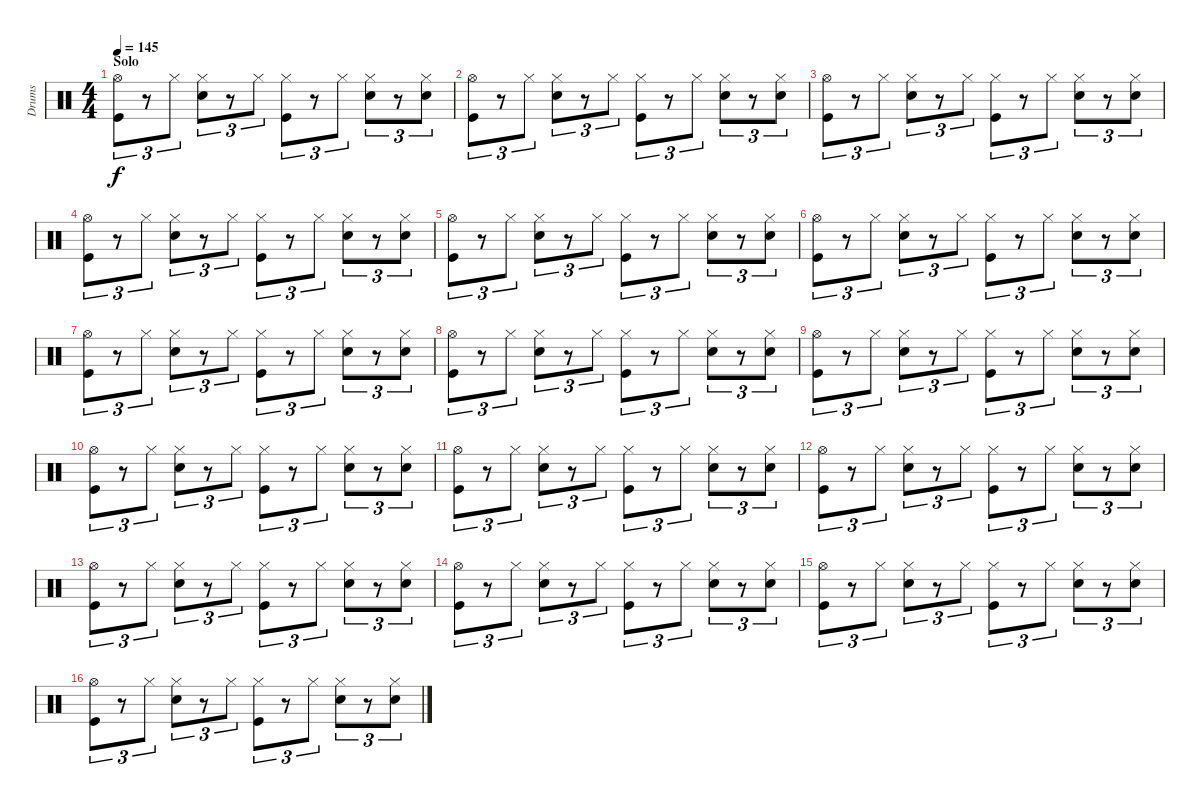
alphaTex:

\track ("Drums" "Drums") {instrument percussion}
\staff {score}
\articulation defaults
\ts (4 4)
\section ("" "Solo")
\tempo 145
\clef neutral
\ks c
("Hi-Hat (open)" "Kick (hit)").8{tu (3 2) dy f} r.8{tu (3 2)} "Hi-Hat (closed)".8{tu (3 2)} ("Hi-Hat (closed)" "Snare (hit) 2").8{tu (3 2)} r.8{tu (3 2)} "Hi-Hat (closed)".8{tu (3 2)} ("Hi-Hat (closed)" "Kick (hit)").8{tu (3 2)} r.8{tu (3 2)} "Hi-Hat (closed)".8{tu (3 2)} ("Hi-Hat (closed)" "Snare (hit) 2").8{tu (3 2)} r.8{tu (3 2)} ("Hi-Hat (closed)" "Snare (hit) 2").8{tu (3 2)} |
("Hi-Hat (open)" "Kick (hit)").8{tu (3 2)} r.8{tu (3 2)} "Hi-Hat (closed)".8{tu (3 2)} ("Hi-Hat (closed)" "Snare (hit) 2").8{tu (3 2)} r.8{tu (3 2)} "Hi-Hat (closed)".8{tu (3 2)} ("Hi-Hat (closed)" "Kick (hit)").8{tu (3 2)} r.8{tu (3 2)} "Hi-Hat (closed)".8{tu (3 2)} ("Hi-Hat (closed)" "Snare (hit) 2").8{tu (3 2)} r.8{tu (3 2)} ("Hi-Hat (closed)" "Snare (hit) 2").8{tu (3 2)} |
("Hi-Hat (open)" "Kick (hit)").8{tu (3 2)} r.8{tu (3 2)} "Hi-Hat (closed)".8{tu (3 2)} ("Hi-Hat (closed)" "Snare (hit) 2").8{tu (3 2)} r.8{tu (3 2)} "Hi-Hat (closed)".8{tu (3 2)} ("Hi-Hat (closed)" "Kick (hit)").8{tu (3 2)} r.8{tu (3 2)} "Hi-Hat (closed)".8{tu (3 2)} ("Hi-Hat (closed)" "Snare (hit) 2").8{tu (3 2)} r.8{tu (3 2)} ("Hi-Hat (closed)" "Snare (hit) 2").8{tu (3 2)} |
("Hi-Hat (open)" "Kick (hit)").8{tu (3 2)} r.8{tu (3 2)} "Hi-Hat (closed)".8{tu (3 2)} ("Hi-Hat (closed)" "Snare (hit) 2").8{tu (3 2)} r.8{tu (3 2)} "Hi-Hat (closed)".8{tu (3 2)} ("Hi-Hat (closed)" "Kick (hit)").8{tu (3 2)} r.8{tu (3 2)} "Hi-Hat (closed)".8{tu (3 2)} ("Hi-Hat (closed)" "Snare (hit) 2").8{tu (3 2)} r.8{tu (3 2)} ("Hi-Hat (closed)" "Snare (hit) 2").8{tu (3 2)} |
("Hi-Hat (open)" "Kick (hit)").8{tu (3 2)} r.8{tu (3 2)} "Hi-Hat (closed)".8{tu (3 2)} ("Hi-Hat (closed)" "Snare (hit) 2").8{tu (3 2)} r.8{tu (3 2)} "Hi-Hat (closed)".8{tu (3 2)} ("Hi-Hat (closed)" "Kick (hit)").8{tu (3 2)} r.8{tu (3 2)} "Hi-Hat (closed)".8{tu (3 2)} ("Hi-Hat (closed)" "Snare (hit) 2").8{tu (3 2)} r.8{tu (3 2)} ("Hi-Hat (closed)" "Snare (hit) 2").8{tu (3 2)} |
("Hi-Hat (open)" "Kick (hit)").8{tu (3 2)} r.8{tu (3 2)} "Hi-Hat (closed)".8{tu (3 2)} ("Hi-Hat (closed)" "Snare (hit) 2").8{tu (3 2)} r.8{tu (3 2)} "Hi-Hat (closed)".8{tu (3 2)} ("Hi-Hat (closed)" "Kick (hit)").8{tu (3 2)} r.8{tu (3 2)} "Hi-Hat (closed)".8{tu (3 2)} ("Hi-Hat (closed)" "Snare (hit) 2").8{tu (3 2)} r.8{tu (3 2)} ("Hi-Hat (closed)" "Snare (hit) 2").8{tu (3 2)} |
("Hi-Hat (open)" "Kick (hit)").8{tu (3 2)} r.8{tu (3 2)} "Hi-Hat (closed)".8{tu (3 2)} ("Hi-Hat (closed)" "Snare (hit) 2").8{tu (3 2)} r.8{tu (3 2)} "Hi-Hat (closed)".8{tu (3 2)} ("Hi-Hat (closed)" "Kick (hit)").8{tu (3 2)} r.8{tu (3 2)} "Hi-Hat (closed)".8{tu (3 2)} ("Hi-Hat (closed)" "Snare (hit) 2").8{tu (3 2)} r.8{tu (3 2)} ("Hi-Hat (closed)" "Snare (hit) 2").8{tu (3 2)} |
("Hi-Hat (open)" "Kick (hit)").8{tu (3 2)} r.8{tu (3 2)} "Hi-Hat (closed)".8{tu (3 2)} ("Hi-Hat (closed)" "Snare (hit) 2").8{tu (3 2)} r.8{tu (3 2)} "Hi-Hat (closed)".8{tu (3 2)} ("Hi-Hat (closed)" "Kick (hit)").8{tu (3 2)} r.8{tu (3 2)} "Hi-Hat (closed)".8{tu (3 2)} ("Hi-Hat (closed)" "Snare (hit) 2").8{tu (3 2)} r.8{tu (3 2)} ("Hi-Hat (closed)" "Snare (hit) 2").8{tu (3 2)} |
("Hi-Hat (open)" "Kick (hit)").8{tu (3 2)} r.8{tu (3 2)} "Hi-Hat (closed)".8{tu (3 2)} ("Hi-Hat (closed)" "Snare (hit) 2").8{tu (3 2)} r.8{tu (3 2)} "Hi-Hat (closed)".8{tu (3 2)} ("Hi-Hat (closed)" "Kick (hit)").8{tu (3 2)} r.8{tu (3 2)} "Hi-Hat (closed)".8{tu (3 2)} ("Hi-Hat (closed)" "Snare (hit) 2").8{tu (3 2)} r.8{tu (3 2)} ("Hi-Hat (closed)" "Snare (hit) 2").8{tu (3 2)} |
("Hi-Hat (open)" "Kick (hit)").8{tu (3 2)} r.8{tu (3 2)} "Hi-Hat (closed)".8{tu (3 2)} ("Hi-Hat (closed)" "Snare (hit) 2").8{tu (3 2)} r.8{tu (3 2)} "Hi-Hat (closed)".8{tu (3 2)} ("Hi-Hat (closed)" "Kick (hit)").8{tu (3 2)} r.8{tu (3 2)} "Hi-Hat (closed)".8{tu (3 2)} ("Hi-Hat (closed)" "Snare (hit) 2").8{tu (3 2)} r.8{tu (3 2)} ("Hi-Hat (closed)" "Snare (hit) 2").8{tu (3 2)} |
("Hi-Hat (open)" "Kick (hit)").8{tu (3 2)} r.8{tu (3 2)} "Hi-Hat (closed)".8{tu (3 2)} ("Hi-Hat (closed)" "Snare (hit) 2").8{tu (3 2)} r.8{tu (3 2)} "Hi-Hat (closed)".8{tu (3 2)} ("Hi-Hat (closed)" "Kick (hit)").8{tu (3 2)} r.8{tu (3 2)} "Hi-Hat (closed)".8{tu (3 2)} ("Hi-Hat (closed)" "Snare (hit) 2").8{tu (3 2)} r.8{tu (3 2)} ("Hi-Hat (closed)" "Snare (hit) 2").8{tu (3 2)} |
("Hi-Hat (open)" "Kick (hit)").8{tu (3 2)} r.8{tu (3 2)} "Hi-Hat (closed)".8{tu (3 2)} ("Hi-Hat (closed)" "Snare (hit) 2").8{tu (3 2)} r.8{tu (3 2)} "Hi-Hat (closed)".8{tu (3 2)} ("Hi-Hat (closed)" "Kick (hit)").8{tu (3 2)} r.8{tu (3 2)} "Hi-Hat (closed)".8{tu (3 2)} ("Hi-Hat (closed)" "Snare (hit) 2").8{tu (3 2)} r.8{tu (3 2)} ("Hi-Hat (closed)" "Snare (hit) 2").8{tu (3 2)} |
("Hi-Hat (open)" "Kick (hit)").8{tu (3 2)} r.8{tu (3 2)} "Hi-Hat (closed)".8{tu (3 2)} ("Hi-Hat (closed)" "Snare (hit) 2").8{tu (3 2)} r.8{tu (3 2)} "Hi-Hat (closed)".8{tu (3 2)} ("Hi-Hat (closed)" "Kick (hit)").8{tu (3 2)} r.8{tu (3 2)} "Hi-Hat (closed)".8{tu (3 2)} ("Hi-Hat (closed)" "Snare (hit) 2").8{tu (3 2)} r.8{tu (3 2)} ("Hi-Hat (closed)" "Snare (hit) 2").8{tu (3 2)} |
("Hi-Hat (open)" "Kick (hit)").8{tu (3 2)} r.8{tu (3 2)} "Hi-Hat (closed)".8{tu (3 2)} ("Hi-Hat (closed)" "Snare (hit) 2").8{tu (3 2)} r.8{tu (3 2)} "Hi-Hat (closed)".8{tu (3 2)} ("Hi-Hat (closed)" "Kick (hit)").8{tu (3 2)} r.8{tu (3 2)} "Hi-Hat (closed)".8{tu (3 2)} ("Hi-Hat (closed)" "Snare (hit) 2").8{tu (3 2)} r.8{tu (3 2)} ("Hi-Hat (closed)" "Snare (hit) 2").8{tu (3 2)} |
("Hi-Hat (open)" "Kick (hit)").8{tu (3 2)} r.8{tu (3 2)} "Hi-Hat (closed)".8{tu (3 2)} ("Hi-Hat (closed)" "Snare (hit) 2").8{tu (3 2)} r.8{tu (3 2)} "Hi-Hat (closed)".8{tu (3 2)} ("Hi-Hat (closed)" "Kick (hit)").8{tu (3 2)} r.8{tu (3 2)} "Hi-Hat (closed)".8{tu (3 2)} ("Hi-Hat (closed)" "Snare (hit) 2").8{tu (3 2)} r.8{tu (3 2)} ("Hi-Hat (closed)" "Snare (hit) 2").8{tu (3 2)} |
("Hi-Hat (open)" "Kick (hit)").8{tu (3 2)} r.8{tu (3 2)} "Hi-Hat (closed)".8{tu (3 2)} ("Hi-Hat (closed)" "Snare (hit) 2").8{tu (3 2)} r.8{tu (3 2)} "Hi-Hat (closed)".8{tu (3 2)} ("Hi-Hat (closed)" "Kick (hit)").8{tu (3 2)} r.8{tu (3 2)} "Hi-Hat (closed)".8{tu (3 2)} ("Hi-Hat (closed)" "Snare (hit) 2").8{tu (3 2)} r.8{tu (3 2)} ("Hi-Hat (closed)" "Snare (hit) 2").8{tu (3 2)}
